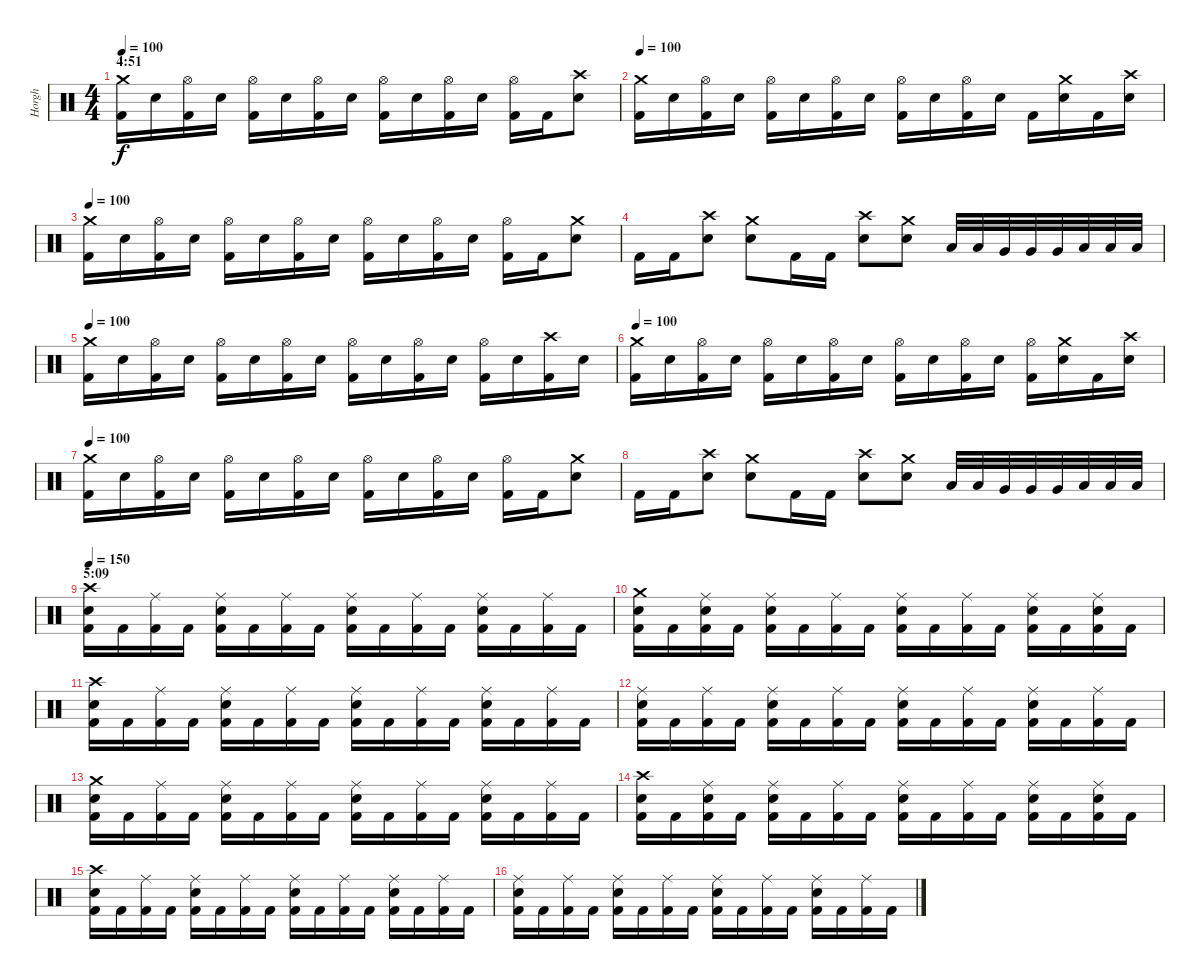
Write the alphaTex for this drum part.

\track ("Horgh" "Horgh") {instrument percussion}
\staff {score}
\articulation defaults
\ts (4 4)
\section ("" "4:51")
\tempo 100
\clef neutral
\ks c
("Crash medium (hit)" "Kick (hit) 2").16{dy f} "Electric Snare (hit)".16 ("Hi-Hat (open)" "Kick (hit) 2").16 "Electric Snare (hit)".16 ("Hi-Hat (open)" "Kick (hit) 2").16 "Electric Snare (hit)".16 ("Hi-Hat (open)" "Kick (hit) 2").16 "Electric Snare (hit)".16 ("Hi-Hat (open)" "Kick (hit) 2").16 "Electric Snare (hit)".16 ("Hi-Hat (open)" "Kick (hit) 2").16 "Electric Snare (hit)".16 ("Hi-Hat (open)" "Kick (hit) 2").16 "Kick (hit) 2".16 ("Crash high (hit)" "Electric Snare (hit)").8 |
\tempo 100
("Crash medium (hit)" "Kick (hit) 2").16 "Electric Snare (hit)".16 ("Hi-Hat (open)" "Kick (hit) 2").16 "Electric Snare (hit)".16 ("Hi-Hat (open)" "Kick (hit) 2").16 "Electric Snare (hit)".16 ("Hi-Hat (open)" "Kick (hit) 2").16 "Electric Snare (hit)".16 ("Hi-Hat (open)" "Kick (hit) 2").16 "Electric Snare (hit)".16 ("Hi-Hat (open)" "Kick (hit) 2").16 "Electric Snare (hit)".16 "Kick (hit) 2".16 ("Crash medium (hit)" "Electric Snare (hit)").16 "Kick (hit) 2".16 ("Crash high (hit)" "Electric Snare (hit)").16 |
\tempo 100
("Crash medium (hit)" "Kick (hit) 2").16 "Electric Snare (hit)".16 ("Hi-Hat (open)" "Kick (hit) 2").16 "Electric Snare (hit)".16 ("Hi-Hat (open)" "Kick (hit) 2").16 "Electric Snare (hit)".16 ("Hi-Hat (open)" "Kick (hit) 2").16 "Electric Snare (hit)".16 ("Hi-Hat (open)" "Kick (hit) 2").16 "Electric Snare (hit)".16 ("Hi-Hat (open)" "Kick (hit) 2").16 "Electric Snare (hit)".16 ("Hi-Hat (open)" "Kick (hit) 2").16 "Kick (hit) 2".16 ("Crash medium (hit)" "Electric Snare (hit)").8 |
"Kick (hit) 2".16 "Kick (hit) 2".16 ("Crash high (hit)" "Electric Snare (hit)").8 ("Crash medium (hit)" "Electric Snare (hit)").8 "Kick (hit) 2".16 "Kick (hit) 2".16 ("Crash high (hit)" "Electric Snare (hit)").8 ("Crash medium (hit)" "Electric Snare (hit)").8 "Low Tom (hit)".32 "Low Tom (hit)".32 "Very Low Tom (hit)".32 "Very Low Tom (hit)".32 "Very Low Tom (hit)".32 "Low Floor Tom (hit)".32 "Low Floor Tom (hit)".32 "Low Floor Tom (hit)".32 |
\tempo 100
("Crash medium (hit)" "Kick (hit) 2").16 "Electric Snare (hit)".16 ("Hi-Hat (open)" "Kick (hit) 2").16 "Electric Snare (hit)".16 ("Hi-Hat (open)" "Kick (hit) 2").16 "Electric Snare (hit)".16 ("Hi-Hat (open)" "Kick (hit) 2").16 "Electric Snare (hit)".16 ("Hi-Hat (open)" "Kick (hit) 2").16 "Electric Snare (hit)".16 ("Hi-Hat (open)" "Kick (hit) 2").16 "Electric Snare (hit)".16 ("Hi-Hat (open)" "Kick (hit) 2").16 "Electric Snare (hit)".16 ("Crash high (hit)" "Kick (hit) 2").16 "Electric Snare (hit)".16 |
\tempo 100
("Crash medium (hit)" "Kick (hit) 2").16 "Electric Snare (hit)".16 ("Hi-Hat (open)" "Kick (hit) 2").16 "Electric Snare (hit)".16 ("Hi-Hat (open)" "Kick (hit) 2").16 "Electric Snare (hit)".16 ("Hi-Hat (open)" "Kick (hit) 2").16 "Electric Snare (hit)".16 ("Hi-Hat (open)" "Kick (hit) 2").16 "Electric Snare (hit)".16 ("Hi-Hat (open)" "Kick (hit) 2").16 "Electric Snare (hit)".16 ("Hi-Hat (open)" "Kick (hit) 2").16 ("Crash medium (hit)" "Electric Snare (hit)").16 "Kick (hit) 2".16 ("Crash high (hit)" "Electric Snare (hit)").16 |
\tempo 100
("Crash medium (hit)" "Kick (hit) 2").16 "Electric Snare (hit)".16 ("Hi-Hat (open)" "Kick (hit) 2").16 "Electric Snare (hit)".16 ("Hi-Hat (open)" "Kick (hit) 2").16 "Electric Snare (hit)".16 ("Hi-Hat (open)" "Kick (hit) 2").16 "Electric Snare (hit)".16 ("Hi-Hat (open)" "Kick (hit) 2").16 "Electric Snare (hit)".16 ("Hi-Hat (open)" "Kick (hit) 2").16 "Electric Snare (hit)".16 ("Hi-Hat (open)" "Kick (hit) 2").16 "Kick (hit) 2".16 ("Crash medium (hit)" "Electric Snare (hit)").8 |
"Kick (hit) 2".16 "Kick (hit) 2".16 ("Crash high (hit)" "Electric Snare (hit)").8 ("Crash medium (hit)" "Electric Snare (hit)").8 "Kick (hit) 2".16 "Kick (hit) 2".16 ("Crash high (hit)" "Electric Snare (hit)").8 ("Crash medium (hit)" "Electric Snare (hit)").8 "Low Tom (hit)".32 "Low Tom (hit)".32 "Very Low Tom (hit)".32 "Very Low Tom (hit)".32 "Very Low Tom (hit)".32 "Low Floor Tom (hit)".32 "Low Floor Tom (hit)".32 "Low Floor Tom (hit)".32 |
\section ("" "5:09")
\tempo 150
("Crash high (hit)" "Electric Snare (hit)" "Kick (hit) 2").16 "Kick (hit) 2".16 ("Ride (middle)" "Kick (hit) 2").16 "Kick (hit) 2".16 ("Ride (middle)" "Electric Snare (hit)" "Kick (hit) 2").16 "Kick (hit) 2".16 ("Ride (middle)" "Kick (hit) 2").16 "Kick (hit) 2".16 ("Ride (middle)" "Electric Snare (hit)" "Kick (hit) 2").16 "Kick (hit) 2".16 ("Ride (middle)" "Kick (hit) 2").16 "Kick (hit) 2".16 ("Ride (middle)" "Electric Snare (hit)" "Kick (hit) 2").16 "Kick (hit) 2".16 ("Ride (middle)" "Kick (hit) 2").16 "Kick (hit) 2".16 |
("Crash medium (hit)" "Electric Snare (hit)" "Kick (hit) 2").16 "Kick (hit) 2".16 ("Ride (middle)" "Electric Snare (hit)" "Kick (hit) 2").16 "Kick (hit) 2".16 ("Ride (middle)" "Electric Snare (hit)" "Kick (hit) 2").16 "Kick (hit) 2".16 ("Ride (middle)" "Kick (hit) 2").16 "Kick (hit) 2".16 ("Ride (middle)" "Electric Snare (hit)" "Kick (hit) 2").16 "Kick (hit) 2".16 ("Ride (middle)" "Kick (hit) 2").16 "Kick (hit) 2".16 ("Ride (middle)" "Electric Snare (hit)" "Kick (hit) 2").16 "Kick (hit) 2".16 ("Ride (middle)" "Electric Snare (hit)" "Kick (hit) 2").16 "Kick (hit) 2".16 |
("Crash high (hit)" "Electric Snare (hit)" "Kick (hit) 2").16 "Kick (hit) 2".16 ("Ride (middle)" "Kick (hit) 2").16 "Kick (hit) 2".16 ("Ride (middle)" "Electric Snare (hit)" "Kick (hit) 2").16 "Kick (hit) 2".16 ("Ride (middle)" "Kick (hit) 2").16 "Kick (hit) 2".16 ("Ride (middle)" "Electric Snare (hit)" "Kick (hit) 2").16 "Kick (hit) 2".16 ("Ride (middle)" "Kick (hit) 2").16 "Kick (hit) 2".16 ("Ride (middle)" "Electric Snare (hit)" "Kick (hit) 2").16 "Kick (hit) 2".16 ("Ride (middle)" "Kick (hit) 2").16 "Kick (hit) 2".16 |
("Ride (middle)" "Electric Snare (hit)" "Kick (hit) 2").16 "Kick (hit) 2".16 ("Ride (middle)" "Kick (hit) 2").16 "Kick (hit) 2".16 ("Ride (middle)" "Electric Snare (hit)" "Kick (hit) 2").16 "Kick (hit) 2".16 ("Ride (middle)" "Kick (hit) 2").16 "Kick (hit) 2".16 ("Ride (middle)" "Electric Snare (hit)" "Kick (hit) 2").16 "Kick (hit) 2".16 ("Ride (middle)" "Kick (hit) 2").16 "Kick (hit) 2".16 ("Ride (middle)" "Electric Snare (hit)" "Kick (hit) 2").16 "Kick (hit) 2".16 ("Ride (middle)" "Kick (hit) 2").16 "Kick (hit) 2".16 |
("Crash medium (hit)" "Electric Snare (hit)" "Kick (hit) 2").16 "Kick (hit) 2".16 ("Ride (middle)" "Kick (hit) 2").16 "Kick (hit) 2".16 ("Ride (middle)" "Electric Snare (hit)" "Kick (hit) 2").16 "Kick (hit) 2".16 ("Ride (middle)" "Kick (hit) 2").16 "Kick (hit) 2".16 ("Ride (middle)" "Electric Snare (hit)" "Kick (hit) 2").16 "Kick (hit) 2".16 ("Ride (middle)" "Kick (hit) 2").16 "Kick (hit) 2".16 ("Ride (middle)" "Electric Snare (hit)" "Kick (hit) 2").16 "Kick (hit) 2".16 ("Ride (middle)" "Kick (hit) 2").16 "Kick (hit) 2".16 |
("Crash high (hit)" "Electric Snare (hit)" "Kick (hit) 2").16 "Kick (hit) 2".16 ("Ride (middle)" "Electric Snare (hit)" "Kick (hit) 2").16 "Kick (hit) 2".16 ("Ride (middle)" "Electric Snare (hit)" "Kick (hit) 2").16 "Kick (hit) 2".16 ("Ride (middle)" "Kick (hit) 2").16 "Kick (hit) 2".16 ("Ride (middle)" "Electric Snare (hit)" "Kick (hit) 2").16 "Kick (hit) 2".16 ("Ride (middle)" "Kick (hit) 2").16 "Kick (hit) 2".16 ("Ride (middle)" "Electric Snare (hit)" "Kick (hit) 2").16 "Kick (hit) 2".16 ("Ride (middle)" "Electric Snare (hit)" "Kick (hit) 2").16 "Kick (hit) 2".16 |
("Crash high (hit)" "Electric Snare (hit)" "Kick (hit) 2").16 "Kick (hit) 2".16 ("Ride (middle)" "Kick (hit) 2").16 "Kick (hit) 2".16 ("Ride (middle)" "Electric Snare (hit)" "Kick (hit) 2").16 "Kick (hit) 2".16 ("Ride (middle)" "Kick (hit) 2").16 "Kick (hit) 2".16 ("Ride (middle)" "Electric Snare (hit)" "Kick (hit) 2").16 "Kick (hit) 2".16 ("Ride (middle)" "Kick (hit) 2").16 "Kick (hit) 2".16 ("Ride (middle)" "Electric Snare (hit)" "Kick (hit) 2").16 "Kick (hit) 2".16 ("Ride (middle)" "Kick (hit) 2").16 "Kick (hit) 2".16 |
("Ride (middle)" "Electric Snare (hit)" "Kick (hit) 2").16 "Kick (hit) 2".16 ("Ride (middle)" "Kick (hit) 2").16 "Kick (hit) 2".16 ("Ride (middle)" "Electric Snare (hit)" "Kick (hit) 2").16 "Kick (hit) 2".16 ("Ride (middle)" "Kick (hit) 2").16 "Kick (hit) 2".16 ("Ride (middle)" "Electric Snare (hit)" "Kick (hit) 2").16 "Kick (hit) 2".16 ("Ride (middle)" "Kick (hit) 2").16 "Kick (hit) 2".16 ("Ride (middle)" "Electric Snare (hit)" "Kick (hit) 2").16 "Kick (hit) 2".16 ("Ride (middle)" "Kick (hit) 2").16 "Kick (hit) 2".16
